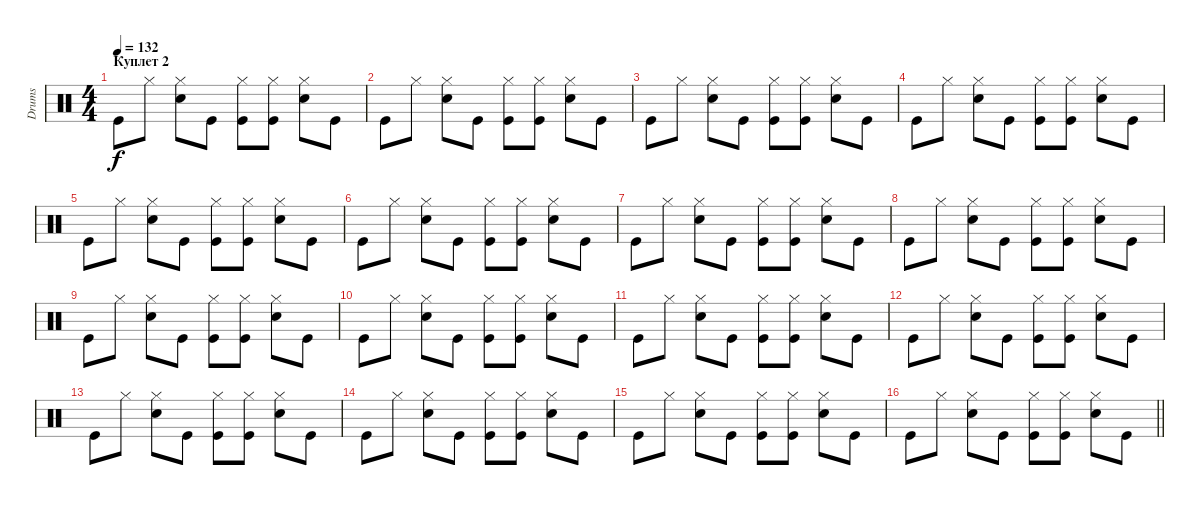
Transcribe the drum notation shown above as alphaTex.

\track ("Drums" "Drums") {instrument percussion}
\staff {score}
\articulation defaults
\ts (4 4)
\section ("" "Куплет 2")
\tempo 132
\clef neutral
\ks c "Kick (hit)".8{dy f} "Hi-Hat (closed)".8
("Hi-Hat (closed)" "Snare (hit) 2").8 "Kick (hit)".8 ("Hi-Hat (closed)" "Kick (hit)").8 ("Hi-Hat (closed)" "Kick (hit)").8 ("Hi-Hat (closed)" "Snare (hit) 2").8 "Kick (hit)".8 |
"Kick (hit)".8 "Hi-Hat (closed)".8 ("Hi-Hat (closed)" "Snare (hit) 2").8 "Kick (hit)".8 ("Hi-Hat (closed)" "Kick (hit)").8 ("Hi-Hat (closed)" "Kick (hit)").8 ("Hi-Hat (closed)" "Snare (hit) 2").8 "Kick (hit)".8 |
"Kick (hit)".8 "Hi-Hat (closed)".8 ("Hi-Hat (closed)" "Snare (hit) 2").8 "Kick (hit)".8 ("Hi-Hat (closed)" "Kick (hit)").8 ("Hi-Hat (closed)" "Kick (hit)").8 ("Hi-Hat (closed)" "Snare (hit) 2").8 "Kick (hit)".8 |
"Kick (hit)".8 "Hi-Hat (closed)".8 ("Hi-Hat (closed)" "Snare (hit) 2").8 "Kick (hit)".8 ("Hi-Hat (closed)" "Kick (hit)").8 ("Hi-Hat (closed)" "Kick (hit)").8 ("Hi-Hat (closed)" "Snare (hit) 2").8 "Kick (hit)".8 |
"Kick (hit)".8 "Hi-Hat (closed)".8 ("Hi-Hat (closed)" "Snare (hit) 2").8 "Kick (hit)".8 ("Hi-Hat (closed)" "Kick (hit)").8 ("Hi-Hat (closed)" "Kick (hit)").8 ("Hi-Hat (closed)" "Snare (hit) 2").8 "Kick (hit)".8 |
"Kick (hit)".8 "Hi-Hat (closed)".8 ("Hi-Hat (closed)" "Snare (hit) 2").8 "Kick (hit)".8 ("Hi-Hat (closed)" "Kick (hit)").8 ("Hi-Hat (closed)" "Kick (hit)").8 ("Hi-Hat (closed)" "Snare (hit) 2").8 "Kick (hit)".8 |
"Kick (hit)".8 "Hi-Hat (closed)".8 ("Hi-Hat (closed)" "Snare (hit) 2").8 "Kick (hit)".8 ("Hi-Hat (closed)" "Kick (hit)").8 ("Hi-Hat (closed)" "Kick (hit)").8 ("Hi-Hat (closed)" "Snare (hit) 2").8 "Kick (hit)".8 |
"Kick (hit)".8 "Hi-Hat (closed)".8 ("Hi-Hat (closed)" "Snare (hit) 2").8 "Kick (hit)".8 ("Hi-Hat (closed)" "Kick (hit)").8 ("Hi-Hat (closed)" "Kick (hit)").8 ("Hi-Hat (closed)" "Snare (hit) 2").8 "Kick (hit)".8 |
"Kick (hit)".8 "Hi-Hat (closed)".8 ("Hi-Hat (closed)" "Snare (hit) 2").8 "Kick (hit)".8 ("Hi-Hat (closed)" "Kick (hit)").8 ("Hi-Hat (closed)" "Kick (hit)").8 ("Hi-Hat (closed)" "Snare (hit) 2").8 "Kick (hit)".8 |
"Kick (hit)".8 "Hi-Hat (closed)".8 ("Hi-Hat (closed)" "Snare (hit) 2").8 "Kick (hit)".8 ("Hi-Hat (closed)" "Kick (hit)").8 ("Hi-Hat (closed)" "Kick (hit)").8 ("Hi-Hat (closed)" "Snare (hit) 2").8 "Kick (hit)".8 |
"Kick (hit)".8 "Hi-Hat (closed)".8 ("Hi-Hat (closed)" "Snare (hit) 2").8 "Kick (hit)".8 ("Hi-Hat (closed)" "Kick (hit)").8 ("Hi-Hat (closed)" "Kick (hit)").8 ("Hi-Hat (closed)" "Snare (hit) 2").8 "Kick (hit)".8 |
"Kick (hit)".8 "Hi-Hat (closed)".8 ("Hi-Hat (closed)" "Snare (hit) 2").8 "Kick (hit)".8 ("Hi-Hat (closed)" "Kick (hit)").8 ("Hi-Hat (closed)" "Kick (hit)").8 ("Hi-Hat (closed)" "Snare (hit) 2").8 "Kick (hit)".8 |
"Kick (hit)".8 "Hi-Hat (closed)".8 ("Hi-Hat (closed)" "Snare (hit) 2").8 "Kick (hit)".8 ("Hi-Hat (closed)" "Kick (hit)").8 ("Hi-Hat (closed)" "Kick (hit)").8 ("Hi-Hat (closed)" "Snare (hit) 2").8 "Kick (hit)".8 |
"Kick (hit)".8 "Hi-Hat (closed)".8 ("Hi-Hat (closed)" "Snare (hit) 2").8 "Kick (hit)".8 ("Hi-Hat (closed)" "Kick (hit)").8 ("Hi-Hat (closed)" "Kick (hit)").8 ("Hi-Hat (closed)" "Snare (hit) 2").8 "Kick (hit)".8 |
"Kick (hit)".8 "Hi-Hat (closed)".8 ("Hi-Hat (closed)" "Snare (hit) 2").8 "Kick (hit)".8 ("Hi-Hat (closed)" "Kick (hit)").8 ("Hi-Hat (closed)" "Kick (hit)").8 ("Hi-Hat (closed)" "Snare (hit) 2").8 "Kick (hit)".8 |
\barLineRight lightlight "Kick (hit)".8 "Hi-Hat (closed)".8
("Hi-Hat (closed)" "Snare (hit) 2").8 "Kick (hit)".8 ("Hi-Hat (closed)" "Kick (hit)").8 ("Hi-Hat (closed)" "Kick (hit)").8 ("Hi-Hat (closed)" "Snare (hit) 2").8 "Kick (hit)".8
